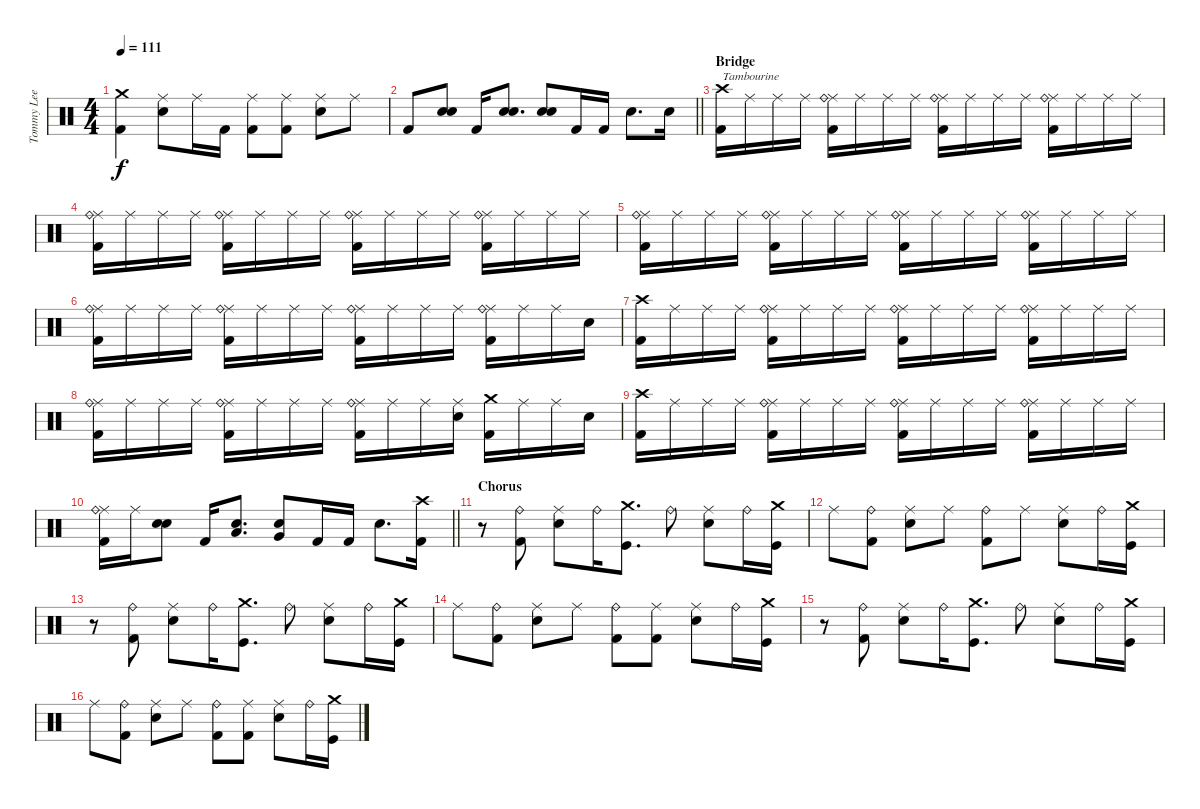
\track ("Tommy Lee" "Tommy Lee") {instrument percussion}
\staff {score}
\articulation defaults
\ts (4 4)
\tempo 111
\clef neutral
\ks c
("Crash medium (hit)" "Kick (hit) 2").4{dy f} ("Ride (middle)" "Snare (hit) 2").8 "Ride (middle)".16 "Kick (hit) 2".16 ("Ride (middle)" "Kick (hit) 2").8 ("Ride (middle)" "Kick (hit) 2").8 ("Ride (middle)" "Snare (hit) 2").8 "Ride (middle)".8 |
\barLineRight lightlight "Kick (hit) 2".8
("Snare (hit) 2" "Snare (hit) 2").8 "Kick (hit) 2".16 ("Snare (hit) 2" "Snare (hit) 2").8{d} ("Snare (hit) 2" "Snare (hit) 2").8 "Kick (hit) 2".16 "Kick (hit) 2".16 "Snare (hit) 2".8{d} "Snare (hit) 2".16 |
\section ("" "Bridge")
("Crash high (hit)" "Kick (hit) 2").16{txt "Tambourine"} "Ride (middle)".16 "Ride (middle)".16 "Ride (middle)".16 ("Ride (middle)" "Ride (bell)" "Kick (hit) 2").16 "Ride (middle)".16 "Ride (middle)".16 "Ride (middle)".16 ("Ride (middle)" "Ride (bell)" "Kick (hit) 2").16 "Ride (middle)".16 "Ride (middle)".16 "Ride (middle)".16 ("Ride (middle)" "Ride (bell)" "Kick (hit) 2").16 "Ride (middle)".16 "Ride (middle)".16 "Ride (middle)".16 |
("Ride (middle)" "Ride (bell)" "Kick (hit) 2").16 "Ride (middle)".16 "Ride (middle)".16 "Ride (middle)".16 ("Ride (middle)" "Ride (bell)" "Kick (hit) 2").16 "Ride (middle)".16 "Ride (middle)".16 "Ride (middle)".16 ("Ride (middle)" "Ride (bell)" "Kick (hit) 2").16 "Ride (middle)".16 "Ride (middle)".16 "Ride (middle)".16 ("Ride (middle)" "Ride (bell)" "Kick (hit) 2").16 "Ride (middle)".16 "Ride (middle)".16 "Ride (middle)".16 |
("Ride (middle)" "Ride (bell)" "Kick (hit) 2").16 "Ride (middle)".16 "Ride (middle)".16 "Ride (middle)".16 ("Ride (middle)" "Ride (bell)" "Kick (hit) 2").16 "Ride (middle)".16 "Ride (middle)".16 "Ride (middle)".16 ("Ride (middle)" "Ride (bell)" "Kick (hit) 2").16 "Ride (middle)".16 "Ride (middle)".16 "Ride (middle)".16 ("Ride (middle)" "Ride (bell)" "Kick (hit) 2").16 "Ride (middle)".16 "Ride (middle)".16 "Ride (middle)".16 |
("Ride (middle)" "Ride (bell)" "Kick (hit) 2").16 "Ride (middle)".16 "Ride (middle)".16 "Ride (middle)".16 ("Ride (middle)" "Ride (bell)" "Kick (hit) 2").16 "Ride (middle)".16 "Ride (middle)".16 "Ride (middle)".16 ("Ride (middle)" "Ride (bell)" "Kick (hit) 2").16 "Ride (middle)".16 "Ride (middle)".16 "Ride (middle)".16 ("Ride (middle)" "Ride (bell)" "Kick (hit) 2").16 "Ride (middle)".16 "Ride (middle)".16 "Snare (hit) 2".16 |
("Crash high (hit)" "Kick (hit) 2").16 "Ride (middle)".16 "Ride (middle)".16 "Ride (middle)".16 ("Ride (middle)" "Ride (bell)" "Kick (hit) 2").16 "Ride (middle)".16 "Ride (middle)".16 "Ride (middle)".16 ("Ride (middle)" "Ride (bell)" "Kick (hit) 2").16 "Ride (middle)".16 "Ride (middle)".16 "Ride (middle)".16 ("Ride (middle)" "Ride (bell)" "Kick (hit) 2").16 "Ride (middle)".16 "Ride (middle)".16 "Ride (middle)".16 |
("Ride (middle)" "Ride (bell)" "Kick (hit) 2").16 "Ride (middle)".16 "Ride (middle)".16 "Ride (middle)".16 ("Ride (middle)" "Ride (bell)" "Kick (hit) 2").16 "Ride (middle)".16 "Ride (middle)".16 "Ride (middle)".16 ("Ride (middle)" "Ride (bell)" "Kick (hit) 2").16 "Ride (middle)".16 "Ride (middle)".16 ("Ride (middle)" "Snare (hit) 2").16 ("Crash medium (hit)" "Kick (hit) 2").16 "Ride (middle)".16 "Ride (middle)".16 "Snare (hit) 2".16 |
("Crash high (hit)" "Kick (hit) 2").16 "Ride (middle)".16 "Ride (middle)".16 "Ride (middle)".16 ("Ride (middle)" "Ride (bell)" "Kick (hit) 2").16 "Ride (middle)".16 "Ride (middle)".16 "Ride (middle)".16 ("Ride (middle)" "Ride (bell)" "Kick (hit) 2").16 "Ride (middle)".16 "Ride (middle)".16 "Ride (middle)".16 ("Ride (middle)" "Ride (bell)" "Kick (hit) 2").16 "Ride (middle)".16 "Ride (middle)".16 "Ride (middle)".16 |
\barLineRight lightlight
("Ride (middle)" "Ride (bell)" "Kick (hit) 2").16 "Ride (middle)".16 ("Snare (hit) 2" "Snare (hit) 2").8 "Kick (hit) 2".16 ("Low Tom (hit)" "Snare (hit) 2").8{d} ("Very Low Tom (hit)" "Snare (hit) 2").8 "Kick (hit) 2".16 "Kick (hit) 2".16 "Snare (hit) 2".8{d} ("Crash high (hit)" "Kick (hit) 2").16 |
\section ("" "Chorus")
r.8 ("Ride (bell)" "Kick (hit) 2").8 ("Ride (middle)" "Snare (hit) 2").8 "Ride (bell)".16 ("Crash medium (hit)" "Kick (hit)").8{d} "Ride (bell)".8 ("Ride (middle)" "Snare (hit) 2").8 "Ride (bell)".16 ("Crash medium (hit)" "Kick (hit)").16 |
"Ride (middle)".8 ("Ride (bell)" "Kick (hit) 2").8 ("Ride (middle)" "Snare (hit) 2").8 "Ride (middle)".8 ("Ride (bell)" "Kick (hit) 2").8 "Ride (middle)".8 ("Ride (middle)" "Snare (hit) 2").8 "Ride (bell)".16 ("Crash medium (hit)" "Kick (hit)").16 |
r.8 ("Ride (bell)" "Kick (hit) 2").8 ("Ride (middle)" "Snare (hit) 2").8 "Ride (bell)".16 ("Crash medium (hit)" "Kick (hit)").8{d} "Ride (bell)".8 ("Ride (middle)" "Snare (hit) 2").8 "Ride (bell)".16 ("Crash medium (hit)" "Kick (hit)").16 |
"Ride (middle)".8 ("Ride (bell)" "Kick (hit) 2").8 ("Ride (middle)" "Snare (hit) 2").8 "Ride (middle)".8 ("Ride (bell)" "Kick (hit) 2").8 ("Ride (middle)" "Kick (hit) 2").8 ("Ride (middle)" "Snare (hit) 2").8 "Ride (bell)".16 ("Crash medium (hit)" "Kick (hit)").16 |
r.8 ("Ride (bell)" "Kick (hit) 2").8 ("Ride (middle)" "Snare (hit) 2").8 "Ride (bell)".16 ("Crash medium (hit)" "Kick (hit)").8{d} "Ride (bell)".8 ("Ride (middle)" "Snare (hit) 2").8 "Ride (bell)".16 ("Crash medium (hit)" "Kick (hit)").16 |
"Ride (middle)".8 ("Ride (bell)" "Kick (hit) 2").8 ("Ride (middle)" "Snare (hit) 2").8 "Ride (middle)".8 ("Ride (bell)" "Kick (hit) 2").8 ("Ride (middle)" "Kick (hit) 2").8 ("Ride (middle)" "Snare (hit) 2").8 "Ride (bell)".16 ("Crash medium (hit)" "Kick (hit)").16
